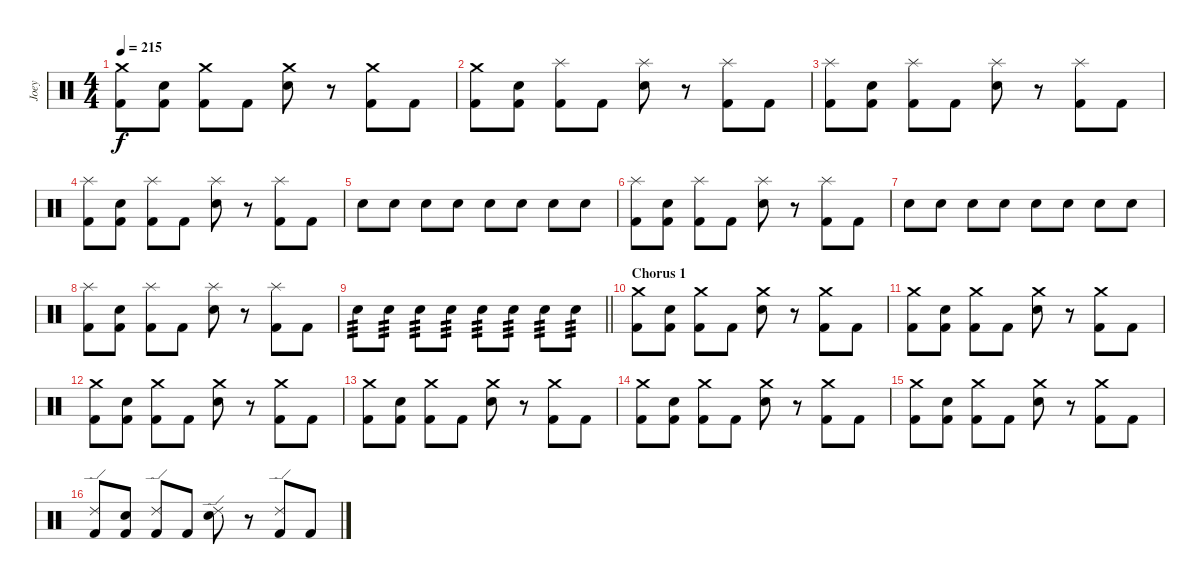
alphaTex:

\track ("Joey" "Joey") {instrument percussion}
\staff {score}
\articulation defaults
\ts (4 4)
\tempo 215
\clef neutral
\ks c
("Crash medium (hit)" "Kick (hit) 2").8{dy f} ("Electric Snare (hit)" "Kick (hit) 2").8 ("Crash medium (hit)" "Kick (hit) 2").8 "Kick (hit) 2".8 ("Crash medium (hit)" "Electric Snare (hit)").8 r.8 ("Crash medium (hit)" "Kick (hit) 2").8 "Kick (hit) 2".8 |
("Crash medium (hit)" "Kick (hit) 2").8 ("Electric Snare (hit)" "Kick (hit) 2").8 ("Splash (hit)" "Kick (hit) 2").8 "Kick (hit) 2".8 ("Splash (hit)" "Electric Snare (hit)").8 r.8 ("Splash (hit)" "Kick (hit) 2").8 "Kick (hit) 2".8 |
("Splash (hit)" "Kick (hit) 2").8 ("Electric Snare (hit)" "Kick (hit) 2").8 ("Splash (hit)" "Kick (hit) 2").8 "Kick (hit) 2".8 ("Splash (hit)" "Electric Snare (hit)").8 r.8 ("Splash (hit)" "Kick (hit) 2").8 "Kick (hit) 2".8 |
("Splash (hit)" "Kick (hit) 2").8 ("Electric Snare (hit)" "Kick (hit) 2").8 ("Splash (hit)" "Kick (hit) 2").8 "Kick (hit) 2".8 ("Splash (hit)" "Electric Snare (hit)").8 r.8 ("Splash (hit)" "Kick (hit) 2").8 "Kick (hit) 2".8 |
"Electric Snare (hit)".8 "Electric Snare (hit)".8 "Electric Snare (hit)".8 "Electric Snare (hit)".8 "Electric Snare (hit)".8 "Electric Snare (hit)".8 "Electric Snare (hit)".8 "Electric Snare (hit)".8 |
("Splash (hit)" "Kick (hit) 2").8 ("Electric Snare (hit)" "Kick (hit) 2").8 ("Splash (hit)" "Kick (hit) 2").8 "Kick (hit) 2".8 ("Splash (hit)" "Electric Snare (hit)").8 r.8 ("Splash (hit)" "Kick (hit) 2").8 "Kick (hit) 2".8 |
"Electric Snare (hit)".8 "Electric Snare (hit)".8 "Electric Snare (hit)".8 "Electric Snare (hit)".8 "Electric Snare (hit)".8 "Electric Snare (hit)".8 "Electric Snare (hit)".8 "Electric Snare (hit)".8 |
("Splash (hit)" "Kick (hit) 2").8 ("Electric Snare (hit)" "Kick (hit) 2").8 ("Splash (hit)" "Kick (hit) 2").8 "Kick (hit) 2".8 ("Splash (hit)" "Electric Snare (hit)").8 r.8 ("Splash (hit)" "Kick (hit) 2").8 "Kick (hit) 2".8 |
\barLineRight lightlight "Electric Snare (hit)".8{tp 3} "Electric Snare (hit)".8{tp 3} "Electric Snare (hit)".8{tp 3} "Electric Snare (hit)".8{tp 3} "Electric Snare (hit)".8{tp 3} "Electric Snare (hit)".8{tp 3} "Electric Snare (hit)".8{tp 3} "Electric Snare (hit)".8{tp 3}
|
\section ("" "Chorus 1")
("Crash medium (hit)" "Kick (hit) 2").8 ("Electric Snare (hit)" "Kick (hit) 2").8 ("Crash medium (hit)" "Kick (hit) 2").8 "Kick (hit) 2".8 ("Crash medium (hit)" "Electric Snare (hit)").8 r.8 ("Crash medium (hit)" "Kick (hit) 2").8 "Kick (hit) 2".8 |
("Crash medium (hit)" "Kick (hit) 2").8 ("Electric Snare (hit)" "Kick (hit) 2").8 ("Crash medium (hit)" "Kick (hit) 2").8 "Kick (hit) 2".8 ("Crash medium (hit)" "Electric Snare (hit)").8 r.8 ("Crash medium (hit)" "Kick (hit) 2").8 "Kick (hit) 2".8 |
("Crash medium (hit)" "Kick (hit) 2").8 ("Electric Snare (hit)" "Kick (hit) 2").8 ("Crash medium (hit)" "Kick (hit) 2").8 "Kick (hit) 2".8 ("Crash medium (hit)" "Electric Snare (hit)").8 r.8 ("Crash medium (hit)" "Kick (hit) 2").8 "Kick (hit) 2".8 |
("Crash medium (hit)" "Kick (hit) 2").8 ("Electric Snare (hit)" "Kick (hit) 2").8 ("Crash medium (hit)" "Kick (hit) 2").8 "Kick (hit) 2".8 ("Crash medium (hit)" "Electric Snare (hit)").8 r.8 ("Crash medium (hit)" "Kick (hit) 2").8 "Kick (hit) 2".8 |
("Crash medium (hit)" "Kick (hit) 2").8 ("Electric Snare (hit)" "Kick (hit) 2").8 ("Crash medium (hit)" "Kick (hit) 2").8 "Kick (hit) 2".8 ("Crash medium (hit)" "Electric Snare (hit)").8 r.8 ("Crash medium (hit)" "Kick (hit) 2").8 "Kick (hit) 2".8 |
("Crash medium (hit)" "Kick (hit) 2").8 ("Electric Snare (hit)" "Kick (hit) 2").8 ("Crash medium (hit)" "Kick (hit) 2").8 "Kick (hit) 2".8 ("Crash medium (hit)" "Electric Snare (hit)").8 r.8 ("Crash medium (hit)" "Kick (hit) 2").8 "Kick (hit) 2".8 |
("Ride (edge) 2" "Kick (hit) 2").8 ("Electric Snare (hit)" "Kick (hit) 2").8 ("Ride (edge) 2" "Kick (hit) 2").8 "Kick (hit) 2".8 ("Ride (edge) 2" "Electric Snare (hit)").8 r.8 ("Ride (edge) 2" "Kick (hit) 2").8 "Kick (hit) 2".8
